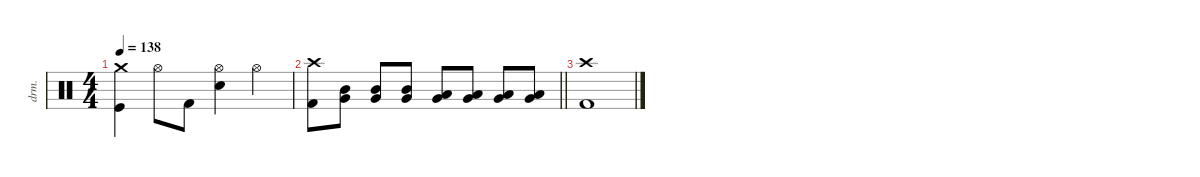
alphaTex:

\defaultSystemsLayout 4
\hideDynamics
\bracketExtendMode nobrackets
\track ("Percussions" "drm.") {instrument percussion}
\staff {score}
\articulation defaults
\ts (4 4)
\tempo 138
\clef neutral
\ks aminor
("Crash medium (hit)" "Kick (hit)").4{dy f beam Down} "Hi-Hat (open)".8{beam Down} "Kick (hit) 2".8{beam Down} ("Hi-Hat (open)" "Snare (hit) 2").4{beam Down} "Hi-Hat (open)".4{beam Down} |
\barLineRight lightlight
("Crash high (hit)" "Kick (hit) 2").8{beam Down} ("Mid Tom (hit)" "Very Low Tom (hit)").8{beam Down} ("Very Low Tom (hit)" "Mid Tom (hit)").8{beam Up} ("Very Low Tom (hit)" "Mid Tom (hit)").8{beam Up} ("Very Low Tom (hit)" "Low Tom (hit)").8{beam Up} ("Very Low Tom (hit)" "Low Tom (hit)").8{beam Up} ("Very Low Tom (hit)" "Low Tom (hit)").8{beam Up} ("Very Low Tom (hit)" "Low Tom (hit)").8{beam Up} |
("Kick (hit) 2" "Crash high (hit)").1{beam Down}
